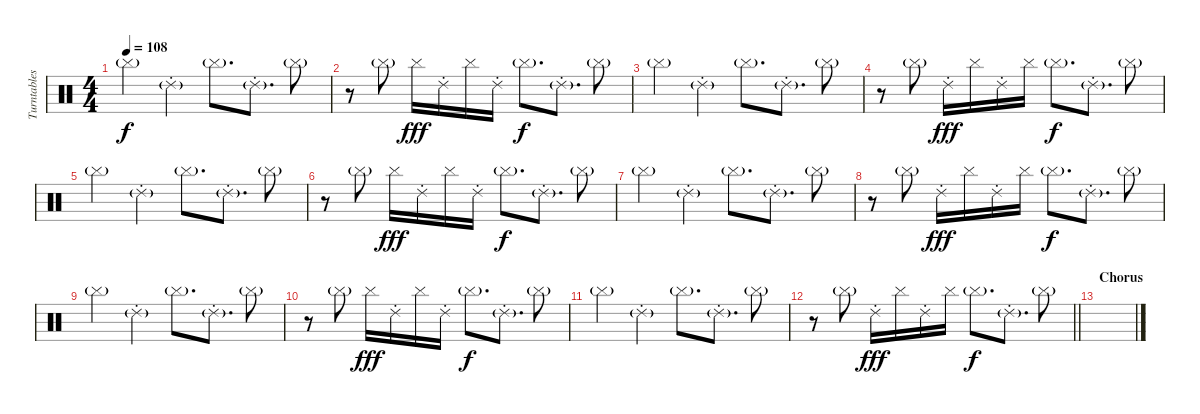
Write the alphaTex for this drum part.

\track ("Turntables - Joe Hahn" "Turntables") {instrument percussion}
\staff {score}
\articulation defaults
\ts (4 4)
\tempo 108
\clef neutral
\ks c "Cymbal (hit)"{g}.4{dy f} "Ride (choke) 2"{g}.4 "Cymbal (hit)"{g}.8{d} "Ride (choke) 2"{g}.8{d} "Cymbal (hit)"{g}.8
|
r.8 "Cymbal (hit)"{g}.8 "Cymbal (hit)".16{dy fff} "Ride (choke) 2".16 "Cymbal (hit)".16 "Ride (choke) 2".16 "Cymbal (hit)"{g}.8{d dy f} "Ride (choke) 2"{g}.8{d} "Cymbal (hit)"{g}.8 |
"Cymbal (hit)"{g}.4 "Ride (choke) 2"{g}.4 "Cymbal (hit)"{g}.8{d} "Ride (choke) 2"{g}.8{d} "Cymbal (hit)"{g}.8 |
r.8 "Cymbal (hit)"{g}.8 "Ride (choke) 2".16{dy fff} "Cymbal (hit)".16 "Ride (choke) 2".16 "Cymbal (hit)".16 "Cymbal (hit)"{g}.8{d dy f} "Ride (choke) 2"{g}.8{d} "Cymbal (hit)"{g}.8 |
"Cymbal (hit)"{g}.4 "Ride (choke) 2"{g}.4 "Cymbal (hit)"{g}.8{d} "Ride (choke) 2"{g}.8{d} "Cymbal (hit)"{g}.8 |
r.8 "Cymbal (hit)"{g}.8 "Cymbal (hit)".16{dy fff} "Ride (choke) 2".16 "Cymbal (hit)".16 "Ride (choke) 2".16 "Cymbal (hit)"{g}.8{d dy f} "Ride (choke) 2"{g}.8{d} "Cymbal (hit)"{g}.8 |
"Cymbal (hit)"{g}.4 "Ride (choke) 2"{g}.4 "Cymbal (hit)"{g}.8{d} "Ride (choke) 2"{g}.8{d} "Cymbal (hit)"{g}.8 |
r.8 "Cymbal (hit)"{g}.8 "Ride (choke) 2".16{dy fff} "Cymbal (hit)".16 "Ride (choke) 2".16 "Cymbal (hit)".16 "Cymbal (hit)"{g}.8{d dy f} "Ride (choke) 2"{g}.8{d} "Cymbal (hit)"{g}.8 |
"Cymbal (hit)"{g}.4 "Ride (choke) 2"{g}.4 "Cymbal (hit)"{g}.8{d} "Ride (choke) 2"{g}.8{d} "Cymbal (hit)"{g}.8 |
r.8 "Cymbal (hit)"{g}.8 "Cymbal (hit)".16{dy fff} "Ride (choke) 2".16 "Cymbal (hit)".16 "Ride (choke) 2".16 "Cymbal (hit)"{g}.8{d dy f} "Ride (choke) 2"{g}.8{d} "Cymbal (hit)"{g}.8 |
"Cymbal (hit)"{g}.4 "Ride (choke) 2"{g}.4 "Cymbal (hit)"{g}.8{d} "Ride (choke) 2"{g}.8{d} "Cymbal (hit)"{g}.8 |
\barLineRight lightlight
r.8 "Cymbal (hit)"{g}.8 "Ride (choke) 2".16{dy fff} "Cymbal (hit)".16 "Ride (choke) 2".16 "Cymbal (hit)".16 "Cymbal (hit)"{g}.8{d dy f} "Ride (choke) 2"{g}.8{d} "Cymbal (hit)"{g}.8 |
\section ("" "Chorus")
